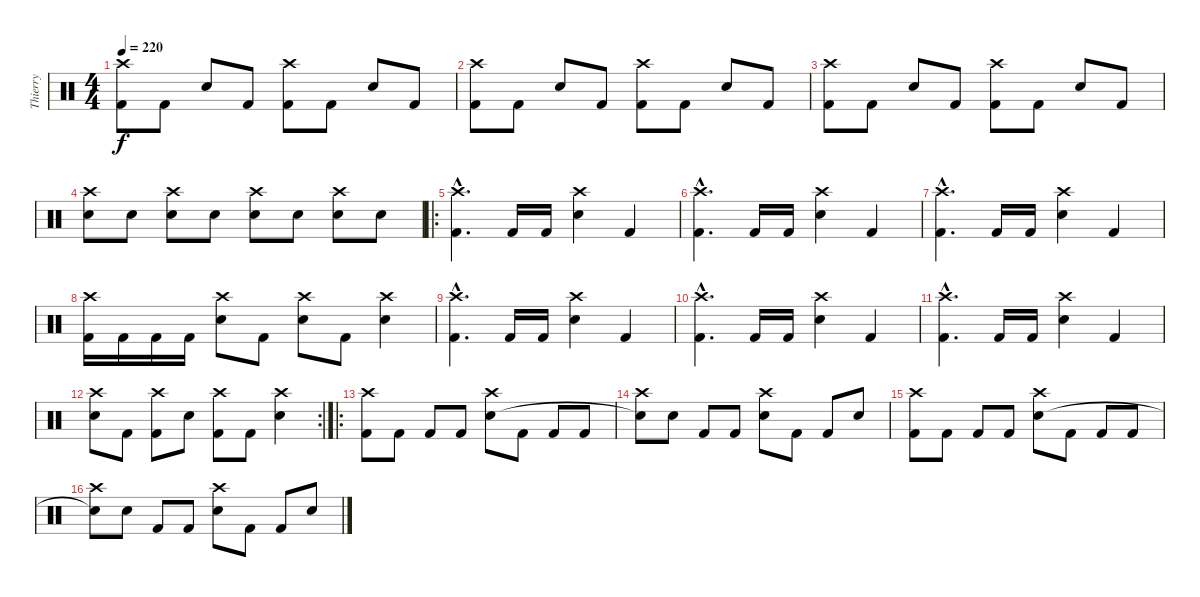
\track ("Thierry" "Thierry") {instrument percussion}
\staff {score}
\articulation defaults
\ts (4 4)
\tempo 220
\clef neutral
\ks c
("Crash high (hit)" "Kick (hit) 2"{t}).8{dy f} "Kick (hit) 2".8 "Electric Snare (hit)".8 "Kick (hit) 2".8 ("Crash high (hit)" "Kick (hit) 2").8 "Kick (hit) 2".8 "Electric Snare (hit)".8 "Kick (hit) 2".8 |
("Crash high (hit)" "Kick (hit) 2").8 "Kick (hit) 2".8 "Electric Snare (hit)".8 "Kick (hit) 2".8 ("Crash high (hit)" "Kick (hit) 2").8 "Kick (hit) 2".8 "Electric Snare (hit)".8 "Kick (hit) 2".8 |
("Crash high (hit)" "Kick (hit) 2").8 "Kick (hit) 2".8 "Electric Snare (hit)".8 "Kick (hit) 2".8 ("Crash high (hit)" "Kick (hit) 2").8 "Kick (hit) 2".8 "Electric Snare (hit)".8 "Kick (hit) 2".8 |
("Crash high (hit)" "Electric Snare (hit)").8 "Electric Snare (hit)".8 ("Crash high (hit)" "Electric Snare (hit)").8 "Electric Snare (hit)".8 ("Crash high (hit)" "Electric Snare (hit)").8 "Electric Snare (hit)".8 ("Crash high (hit)" "Electric Snare (hit)").8 "Electric Snare (hit)".8 |
\ro
("Crash high (hit)"{hac} "Kick (hit) 2"{hac}).4{d} "Kick (hit) 2".16 "Kick (hit) 2".16 ("Crash high (hit)" "Electric Snare (hit)").4 "Kick (hit) 2".4 |
("Crash high (hit)"{hac} "Kick (hit) 2"{hac}).4{d} "Kick (hit) 2".16 "Kick (hit) 2".16 ("Crash high (hit)" "Electric Snare (hit)").4 "Kick (hit) 2".4 |
("Crash high (hit)"{hac} "Kick (hit) 2"{hac}).4{d} "Kick (hit) 2".16 "Kick (hit) 2".16 ("Crash high (hit)" "Electric Snare (hit)").4 "Kick (hit) 2".4 |
("Crash high (hit)" "Kick (hit) 2").16 "Kick (hit) 2".16 "Kick (hit) 2".16 "Kick (hit) 2".16 ("Crash high (hit)" "Electric Snare (hit)").8 "Kick (hit) 2".8 ("Crash high (hit)" "Electric Snare (hit)").8 "Kick (hit) 2".8 ("Crash high (hit)" "Electric Snare (hit)").4 |
("Crash high (hit)"{hac} "Kick (hit) 2"{hac}).4{d} "Kick (hit) 2".16 "Kick (hit) 2".16 ("Crash high (hit)" "Electric Snare (hit)").4 "Kick (hit) 2".4 |
("Crash high (hit)"{hac} "Kick (hit) 2"{hac}).4{d} "Kick (hit) 2".16 "Kick (hit) 2".16 ("Crash high (hit)" "Electric Snare (hit)").4 "Kick (hit) 2".4 |
("Crash high (hit)"{hac} "Kick (hit) 2"{hac}).4{d} "Kick (hit) 2".16 "Kick (hit) 2".16 ("Crash high (hit)" "Electric Snare (hit)").4 "Kick (hit) 2".4 |
\rc 2
("Crash high (hit)" "Electric Snare (hit)").8 "Kick (hit) 2".8 ("Crash high (hit)" "Kick (hit) 2").8 "Electric Snare (hit)".8 ("Crash high (hit)" "Kick (hit) 2").8 "Kick (hit) 2".8 ("Crash high (hit)" "Electric Snare (hit)").4 |
\ro
("Crash high (hit)" "Kick (hit) 2").8 "Kick (hit) 2".8 "Kick (hit) 2".8 "Kick (hit) 2".8 ("Crash high (hit)" "Electric Snare (hit)").8 "Kick (hit) 2".8 "Kick (hit) 2".8 "Kick (hit) 2".8 |
("Crash high (hit)" "Snare (hit)"{t}).8 "Electric Snare (hit)".8 "Kick (hit) 2".8 "Kick (hit) 2".8 ("Crash high (hit)" "Electric Snare (hit)").8 "Kick (hit) 2".8 "Kick (hit) 2".8 "Electric Snare (hit)".8 |
("Crash high (hit)" "Kick (hit) 2").8 "Kick (hit) 2".8 "Kick (hit) 2".8 "Kick (hit) 2".8 ("Crash high (hit)" "Electric Snare (hit)").8 "Kick (hit) 2".8 "Kick (hit) 2".8 "Kick (hit) 2".8 |
("Crash high (hit)" "Snare (hit)"{t}).8 "Electric Snare (hit)".8 "Kick (hit) 2".8 "Kick (hit) 2".8 ("Crash high (hit)" "Electric Snare (hit)").8 "Kick (hit) 2".8 "Kick (hit) 2".8 "Electric Snare (hit)".8
